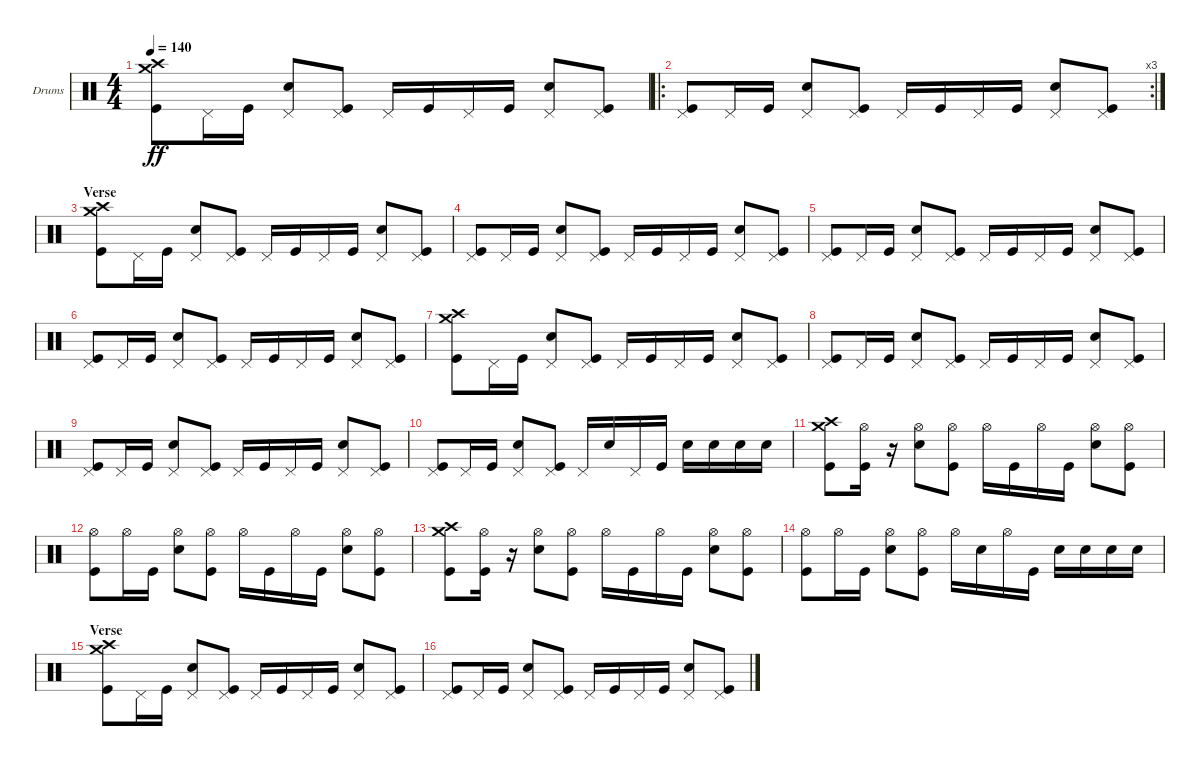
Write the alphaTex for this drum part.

\defaultSystemsLayout 4
\bracketExtendMode nobrackets
\firstSystemTrackNameOrientation horizontal
\otherSystemsTrackNameOrientation horizontal
\track ("Dave Abbruzzese" "Drums") {solo instrument percussion}
\staff {score}
\articulation defaults
\ts (4 4)
\tempo 140
\clef neutral
\ks c
("Crash high (hit)" "Kick (hit)" "Crash medium (hit)").8{dy ff} "Pedal Hi-Hat (hit)".16 "Kick (hit)".16 ("Snare (hit) 2" "Pedal Hi-Hat (hit)").8 ("Kick (hit)" "Pedal Hi-Hat (hit)").8 "Pedal Hi-Hat (hit)".16 "Kick (hit)".16 "Pedal Hi-Hat (hit)".16 "Kick (hit)".16 ("Snare (hit) 2" "Pedal Hi-Hat (hit)").8 ("Kick (hit)" "Pedal Hi-Hat (hit)").8 |
\ro
\rc 3
("Kick (hit)" "Pedal Hi-Hat (hit)").8 "Pedal Hi-Hat (hit)".16 "Kick (hit)".16 ("Snare (hit) 2" "Pedal Hi-Hat (hit)").8 ("Kick (hit)" "Pedal Hi-Hat (hit)").8 "Pedal Hi-Hat (hit)".16 "Kick (hit)".16 "Pedal Hi-Hat (hit)".16 "Kick (hit)".16 ("Snare (hit) 2" "Pedal Hi-Hat (hit)").8 ("Kick (hit)" "Pedal Hi-Hat (hit)").8 |
\section ("" "Verse")
("Crash high (hit)" "Kick (hit)" "Crash medium (hit)").8 "Pedal Hi-Hat (hit)".16 "Kick (hit)".16 ("Snare (hit) 2" "Pedal Hi-Hat (hit)").8 ("Kick (hit)" "Pedal Hi-Hat (hit)").8 "Pedal Hi-Hat (hit)".16 "Kick (hit)".16 "Pedal Hi-Hat (hit)".16 "Kick (hit)".16 ("Snare (hit) 2" "Pedal Hi-Hat (hit)").8 ("Kick (hit)" "Pedal Hi-Hat (hit)").8 |
("Kick (hit)" "Pedal Hi-Hat (hit)").8 "Pedal Hi-Hat (hit)".16 "Kick (hit)".16 ("Snare (hit) 2" "Pedal Hi-Hat (hit)").8 ("Kick (hit)" "Pedal Hi-Hat (hit)").8 "Pedal Hi-Hat (hit)".16 "Kick (hit)".16 "Pedal Hi-Hat (hit)".16 "Kick (hit)".16 ("Snare (hit) 2" "Pedal Hi-Hat (hit)").8 ("Kick (hit)" "Pedal Hi-Hat (hit)").8 |
("Kick (hit)" "Pedal Hi-Hat (hit)").8 "Pedal Hi-Hat (hit)".16 "Kick (hit)".16 ("Snare (hit) 2" "Pedal Hi-Hat (hit)").8 ("Kick (hit)" "Pedal Hi-Hat (hit)").8 "Pedal Hi-Hat (hit)".16 "Kick (hit)".16 "Pedal Hi-Hat (hit)".16 "Kick (hit)".16 ("Snare (hit) 2" "Pedal Hi-Hat (hit)").8 ("Kick (hit)" "Pedal Hi-Hat (hit)").8 |
("Kick (hit)" "Pedal Hi-Hat (hit)").8 "Pedal Hi-Hat (hit)".16 "Kick (hit)".16 ("Snare (hit) 2" "Pedal Hi-Hat (hit)").8 ("Kick (hit)" "Pedal Hi-Hat (hit)").8 "Pedal Hi-Hat (hit)".16 "Kick (hit)".16 "Pedal Hi-Hat (hit)".16 "Kick (hit)".16 ("Snare (hit) 2" "Pedal Hi-Hat (hit)").8 ("Kick (hit)" "Pedal Hi-Hat (hit)").8 |
("Crash high (hit)" "Kick (hit)" "Crash medium (hit)").8 "Pedal Hi-Hat (hit)".16 "Kick (hit)".16 ("Snare (hit) 2" "Pedal Hi-Hat (hit)").8 ("Kick (hit)" "Pedal Hi-Hat (hit)").8 "Pedal Hi-Hat (hit)".16 "Kick (hit)".16 "Pedal Hi-Hat (hit)".16 "Kick (hit)".16 ("Snare (hit) 2" "Pedal Hi-Hat (hit)").8 ("Kick (hit)" "Pedal Hi-Hat (hit)").8 |
("Kick (hit)" "Pedal Hi-Hat (hit)").8 "Pedal Hi-Hat (hit)".16 "Kick (hit)".16 ("Snare (hit) 2" "Pedal Hi-Hat (hit)").8 ("Kick (hit)" "Pedal Hi-Hat (hit)").8 "Pedal Hi-Hat (hit)".16 "Kick (hit)".16 "Pedal Hi-Hat (hit)".16 "Kick (hit)".16 ("Snare (hit) 2" "Pedal Hi-Hat (hit)").8 ("Kick (hit)" "Pedal Hi-Hat (hit)").8 |
("Kick (hit)" "Pedal Hi-Hat (hit)").8 "Pedal Hi-Hat (hit)".16 "Kick (hit)".16 ("Snare (hit) 2" "Pedal Hi-Hat (hit)").8 ("Kick (hit)" "Pedal Hi-Hat (hit)").8 "Pedal Hi-Hat (hit)".16 "Kick (hit)".16 "Pedal Hi-Hat (hit)".16 "Kick (hit)".16 ("Snare (hit) 2" "Pedal Hi-Hat (hit)").8 ("Kick (hit)" "Pedal Hi-Hat (hit)").8 |
("Kick (hit)" "Pedal Hi-Hat (hit)").8 "Pedal Hi-Hat (hit)".16 "Kick (hit)".16 ("Snare (hit) 2" "Pedal Hi-Hat (hit)").8 ("Kick (hit)" "Pedal Hi-Hat (hit)").8 "Pedal Hi-Hat (hit)".16 "Snare (hit) 2".16 "Pedal Hi-Hat (hit)".16 "Kick (hit)".16 "Snare (hit) 2".16 "Snare (hit) 2".16 "Snare (hit) 2".16 "Snare (hit) 2".16 |
("Crash high (hit)" "Kick (hit)" "Crash medium (hit)").8 ("Kick (hit)" "Hi-Hat (open)").16 r.16 ("Snare (hit) 2" "Hi-Hat (open)").8 ("Kick (hit)" "Hi-Hat (open)").8 "Hi-Hat (open)".16 "Kick (hit)".16 "Hi-Hat (open)".16 "Kick (hit)".16 ("Snare (hit) 2" "Hi-Hat (open)").8 ("Kick (hit)" "Hi-Hat (open)").8 |
("Kick (hit)" "Hi-Hat (open)").8 "Hi-Hat (open)".16 "Kick (hit)".16 ("Snare (hit) 2" "Hi-Hat (open)").8 ("Kick (hit)" "Hi-Hat (open)").8 "Hi-Hat (open)".16 "Kick (hit)".16 "Hi-Hat (open)".16 "Kick (hit)".16 ("Snare (hit) 2" "Hi-Hat (open)").8 ("Kick (hit)" "Hi-Hat (open)").8 |
("Crash high (hit)" "Kick (hit)" "Crash medium (hit)").8 ("Kick (hit)" "Hi-Hat (open)").16 r.16 ("Snare (hit) 2" "Hi-Hat (open)").8 ("Kick (hit)" "Hi-Hat (open)").8 "Hi-Hat (open)".16 "Kick (hit)".16 "Hi-Hat (open)".16 "Kick (hit)".16 ("Snare (hit) 2" "Hi-Hat (open)").8 ("Kick (hit)" "Hi-Hat (open)").8 |
("Kick (hit)" "Hi-Hat (open)").8 "Hi-Hat (open)".16 "Kick (hit)".16 ("Snare (hit) 2" "Hi-Hat (open)").8 ("Kick (hit)" "Hi-Hat (open)").8 "Hi-Hat (open)".16 "Snare (hit) 2".16 "Hi-Hat (open)".16 "Kick (hit)".16 "Snare (hit) 2".16 "Snare (hit) 2".16 "Snare (hit) 2".16 "Snare (hit) 2".16 |
\section ("" "Verse")
("Crash high (hit)" "Kick (hit)" "Crash medium (hit)").8 "Pedal Hi-Hat (hit)".16 "Kick (hit)".16 ("Snare (hit) 2" "Pedal Hi-Hat (hit)").8 ("Kick (hit)" "Pedal Hi-Hat (hit)").8 "Pedal Hi-Hat (hit)".16 "Kick (hit)".16 "Pedal Hi-Hat (hit)".16 "Kick (hit)".16 ("Snare (hit) 2" "Pedal Hi-Hat (hit)").8 ("Kick (hit)" "Pedal Hi-Hat (hit)").8 |
("Kick (hit)" "Pedal Hi-Hat (hit)").8 "Pedal Hi-Hat (hit)".16 "Kick (hit)".16 ("Snare (hit) 2" "Pedal Hi-Hat (hit)").8 ("Kick (hit)" "Pedal Hi-Hat (hit)").8 "Pedal Hi-Hat (hit)".16 "Kick (hit)".16 "Pedal Hi-Hat (hit)".16 "Kick (hit)".16 ("Snare (hit) 2" "Pedal Hi-Hat (hit)").8 ("Kick (hit)" "Pedal Hi-Hat (hit)").8
